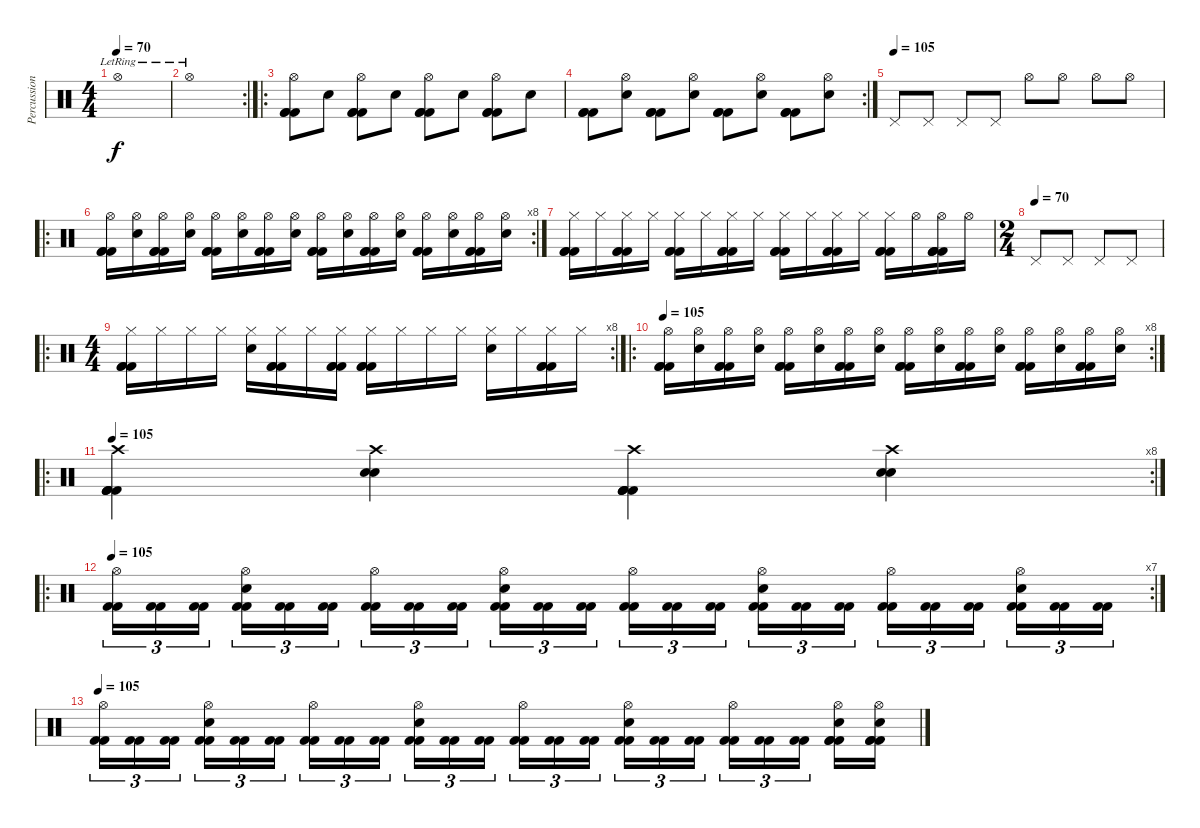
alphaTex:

\track ("Percussion" "Percussion") {instrument percussion}
\staff {score}
\articulation defaults
\ts (4 4)
\tempo 70
\clef neutral
\ks c "Hi-Hat (open)"{lr}.1{dy f}
|
\rc 2 "Hi-Hat (open)"{lr}.1
|
\ro
("Hi-Hat (open)" "Kick (hit) 2" "Kick (hit) 2" "Kick (hit) 2").8 "Snare (hit) 2".8 ("Hi-Hat (open)" "Kick (hit) 2" "Kick (hit) 2" "Kick (hit) 2").8 "Snare (hit) 2".8 ("Hi-Hat (open)" "Kick (hit) 2" "Kick (hit) 2" "Kick (hit) 2").8 "Snare (hit) 2".8 ("Hi-Hat (open)" "Kick (hit) 2" "Kick (hit) 2" "Kick (hit) 2").8 "Snare (hit) 2".8 |
\rc 2
("Kick (hit) 2" "Kick (hit) 2" "Kick (hit) 2").8 ("Hi-Hat (open)" "Snare (hit) 2").8 ("Kick (hit) 2" "Kick (hit) 2" "Kick (hit) 2").8 ("Hi-Hat (open)" "Snare (hit) 2").8 ("Kick (hit) 2" "Kick (hit) 2" "Kick (hit) 2").8 ("Hi-Hat (open)" "Snare (hit) 2").8 ("Kick (hit) 2" "Kick (hit) 2" "Kick (hit) 2").8 ("Hi-Hat (open)" "Snare (hit) 2").8 |
\tempo (105)
"Pedal Hi-Hat (hit)".8 "Pedal Hi-Hat (hit)".8 "Pedal Hi-Hat (hit)".8 "Pedal Hi-Hat (hit)".8 "Hi-Hat (open)".8 "Hi-Hat (open)".8 "Hi-Hat (open)".8 "Hi-Hat (open)".8 |
\ro
\rc 8
("Hi-Hat (open)" "Kick (hit) 2" "Kick (hit) 2" "Kick (hit) 2").16 ("Hi-Hat (open)" "Snare (hit) 2").16 ("Hi-Hat (open)" "Kick (hit) 2" "Kick (hit) 2" "Kick (hit) 2").16 ("Hi-Hat (open)" "Snare (hit) 2").16 ("Hi-Hat (open)" "Kick (hit) 2" "Kick (hit) 2" "Kick (hit) 2").16 ("Hi-Hat (open)" "Snare (hit) 2").16 ("Hi-Hat (open)" "Kick (hit) 2" "Kick (hit) 2" "Kick (hit) 2").16 ("Hi-Hat (open)" "Snare (hit) 2").16 ("Hi-Hat (open)" "Kick (hit) 2" "Kick (hit) 2" "Kick (hit) 2").16 ("Hi-Hat (open)" "Snare (hit) 2").16 ("Hi-Hat (open)" "Kick (hit) 2" "Kick (hit) 2" "Kick (hit) 2").16 ("Hi-Hat (open)" "Snare (hit) 2").16 ("Hi-Hat (open)" "Kick (hit) 2" "Kick (hit) 2" "Kick (hit) 2").16 ("Hi-Hat (open)" "Snare (hit) 2").16 ("Hi-Hat (open)" "Kick (hit) 2" "Kick (hit) 2" "Kick (hit) 2").16 ("Hi-Hat (open)" "Snare (hit) 2").16 |
("Hi-Hat (closed)" "Kick (hit) 2" "Kick (hit) 2" "Kick (hit) 2").16 "Hi-Hat (closed)".16 ("Hi-Hat (closed)" "Kick (hit) 2" "Kick (hit) 2" "Kick (hit) 2").16 "Hi-Hat (closed)".16 ("Hi-Hat (closed)" "Kick (hit) 2" "Kick (hit) 2" "Kick (hit) 2").16 "Hi-Hat (closed)".16 ("Hi-Hat (closed)" "Kick (hit) 2" "Kick (hit) 2" "Kick (hit) 2").16 "Hi-Hat (closed)".16 ("Hi-Hat (closed)" "Kick (hit) 2" "Kick (hit) 2" "Kick (hit) 2").16 "Hi-Hat (closed)".16 ("Hi-Hat (closed)" "Kick (hit) 2" "Kick (hit) 2" "Kick (hit) 2").16 "Hi-Hat (closed)".16 ("Hi-Hat (closed)" "Kick (hit) 2" "Kick (hit) 2" "Kick (hit) 2").16 "Hi-Hat (open)".16 ("Hi-Hat (open)" "Kick (hit) 2" "Kick (hit) 2" "Kick (hit) 2" "Kick (hit) 2").16 "Hi-Hat (open)".16 |
\ts (2 4)
\tempo (70)
"Pedal Hi-Hat (hit)".8 "Pedal Hi-Hat (hit)".8 "Pedal Hi-Hat (hit)".8 "Pedal Hi-Hat (hit)".8 |
\ro
\rc 8
\ts (4 4)
("Hi-Hat (closed)" "Kick (hit) 2" "Kick (hit) 2" "Kick (hit) 2").16 "Hi-Hat (closed)".16 "Hi-Hat (closed)".16 "Hi-Hat (closed)".16 ("Hi-Hat (closed)" "Snare (hit) 2").16 ("Hi-Hat (closed)" "Kick (hit) 2" "Kick (hit) 2" "Kick (hit) 2").16 "Hi-Hat (closed)".16 ("Hi-Hat (closed)" "Kick (hit) 2" "Kick (hit) 2" "Kick (hit) 2").16 ("Hi-Hat (closed)" "Kick (hit) 2" "Kick (hit) 2" "Kick (hit) 2").16 "Hi-Hat (closed)".16 "Hi-Hat (closed)".16 "Hi-Hat (closed)".16 ("Hi-Hat (closed)" "Snare (hit) 2").16 "Hi-Hat (closed)".16 ("Hi-Hat (closed)" "Kick (hit) 2" "Kick (hit) 2" "Kick (hit) 2").16 "Hi-Hat (closed)".16 |
\ro
\rc 8
\tempo 105
("Hi-Hat (open)" "Kick (hit) 2" "Kick (hit) 2" "Kick (hit) 2").16 ("Hi-Hat (open)" "Snare (hit) 2").16 ("Hi-Hat (open)" "Kick (hit) 2" "Kick (hit) 2" "Kick (hit) 2").16 ("Hi-Hat (open)" "Snare (hit) 2").16 ("Hi-Hat (open)" "Kick (hit) 2" "Kick (hit) 2" "Kick (hit) 2").16 ("Hi-Hat (open)" "Snare (hit) 2").16 ("Hi-Hat (open)" "Kick (hit) 2" "Kick (hit) 2" "Kick (hit) 2").16 ("Hi-Hat (open)" "Snare (hit) 2").16 ("Hi-Hat (open)" "Kick (hit) 2" "Kick (hit) 2" "Kick (hit) 2").16 ("Hi-Hat (open)" "Snare (hit) 2").16 ("Hi-Hat (open)" "Kick (hit) 2" "Kick (hit) 2" "Kick (hit) 2").16 ("Hi-Hat (open)" "Snare (hit) 2").16 ("Hi-Hat (open)" "Kick (hit) 2" "Kick (hit) 2" "Kick (hit) 2").16 ("Hi-Hat (open)" "Snare (hit) 2").16 ("Hi-Hat (open)" "Kick (hit) 2" "Kick (hit) 2" "Kick (hit) 2").16 ("Hi-Hat (open)" "Snare (hit) 2").16 |
\ro
\rc 8
\tempo 105
("Crash high (hit)" "Kick (hit) 2" "Kick (hit) 2" "Kick (hit) 2" "Kick (hit) 2").4 ("Crash high (hit)" "Snare (hit) 2" "Snare (hit) 2").4 ("Crash high (hit)" "Kick (hit) 2" "Kick (hit) 2" "Kick (hit) 2" "Kick (hit) 2").4 ("Crash high (hit)" "Snare (hit) 2" "Snare (hit) 2").4 |
\ro
\rc 7
\tempo 105
("Kick (hit) 2" "Kick (hit) 2" "Hi-Hat (open)").16{tu (3 2)} ("Kick (hit) 2" "Kick (hit) 2").16{tu (3 2)} ("Kick (hit) 2" "Kick (hit) 2").16{tu (3 2)} ("Kick (hit) 2" "Kick (hit) 2" "Hi-Hat (open)" "Snare (hit) 2").16{tu (3 2)} ("Kick (hit) 2" "Kick (hit) 2").16{tu (3 2)} ("Kick (hit) 2" "Kick (hit) 2").16{tu (3 2)} ("Kick (hit) 2" "Kick (hit) 2" "Hi-Hat (open)").16{tu (3 2)} ("Kick (hit) 2" "Kick (hit) 2").16{tu (3 2)} ("Kick (hit) 2" "Kick (hit) 2").16{tu (3 2)} ("Kick (hit) 2" "Kick (hit) 2" "Hi-Hat (open)" "Snare (hit) 2").16{tu (3 2)} ("Kick (hit) 2" "Kick (hit) 2").16{tu (3 2)} ("Kick (hit) 2" "Kick (hit) 2").16{tu (3 2)} ("Kick (hit) 2" "Kick (hit) 2" "Hi-Hat (open)").16{tu (3 2)} ("Kick (hit) 2" "Kick (hit) 2").16{tu (3 2)} ("Kick (hit) 2" "Kick (hit) 2").16{tu (3 2)} ("Kick (hit) 2" "Kick (hit) 2" "Hi-Hat (open)" "Snare (hit) 2").16{tu (3 2)} ("Kick (hit) 2" "Kick (hit) 2").16{tu (3 2)} ("Kick (hit) 2" "Kick (hit) 2").16{tu (3 2)} ("Kick (hit) 2" "Kick (hit) 2" "Hi-Hat (open)").16{tu (3 2)} ("Kick (hit) 2" "Kick (hit) 2").16{tu (3 2)} ("Kick (hit) 2" "Kick (hit) 2").16{tu (3 2)} ("Kick (hit) 2" "Kick (hit) 2" "Hi-Hat (open)" "Snare (hit) 2").16{tu (3 2)} ("Kick (hit) 2" "Kick (hit) 2").16{tu (3 2)} ("Kick (hit) 2" "Kick (hit) 2").16{tu (3 2)} |
\tempo 105
("Kick (hit) 2" "Kick (hit) 2" "Hi-Hat (open)").16{tu (3 2)} ("Kick (hit) 2" "Kick (hit) 2").16{tu (3 2)} ("Kick (hit) 2" "Kick (hit) 2").16{tu (3 2)} ("Kick (hit) 2" "Kick (hit) 2" "Hi-Hat (open)" "Snare (hit) 2").16{tu (3 2)} ("Kick (hit) 2" "Kick (hit) 2").16{tu (3 2)} ("Kick (hit) 2" "Kick (hit) 2").16{tu (3 2)} ("Kick (hit) 2" "Kick (hit) 2" "Hi-Hat (open)").16{tu (3 2)} ("Kick (hit) 2" "Kick (hit) 2").16{tu (3 2)} ("Kick (hit) 2" "Kick (hit) 2").16{tu (3 2)} ("Kick (hit) 2" "Kick (hit) 2" "Hi-Hat (open)" "Snare (hit) 2").16{tu (3 2)} ("Kick (hit) 2" "Kick (hit) 2").16{tu (3 2)} ("Kick (hit) 2" "Kick (hit) 2").16{tu (3 2)} ("Kick (hit) 2" "Kick (hit) 2" "Hi-Hat (open)").16{tu (3 2)} ("Kick (hit) 2" "Kick (hit) 2").16{tu (3 2)} ("Kick (hit) 2" "Kick (hit) 2").16{tu (3 2)} ("Kick (hit) 2" "Kick (hit) 2" "Hi-Hat (open)" "Snare (hit) 2").16{tu (3 2)} ("Kick (hit) 2" "Kick (hit) 2").16{tu (3 2)} ("Kick (hit) 2" "Kick (hit) 2").16{tu (3 2)} ("Kick (hit) 2" "Kick (hit) 2" "Hi-Hat (open)").16{tu (3 2)} ("Kick (hit) 2" "Kick (hit) 2").16{tu (3 2)} ("Kick (hit) 2" "Kick (hit) 2").16{tu (3 2)} ("Hi-Hat (open)" "Snare (hit) 2" "Kick (hit) 2" "Kick (hit) 2" "Kick (hit) 2").16 ("Hi-Hat (open)" "Snare (hit) 2" "Kick (hit) 2" "Kick (hit) 2" "Kick (hit) 2").16
